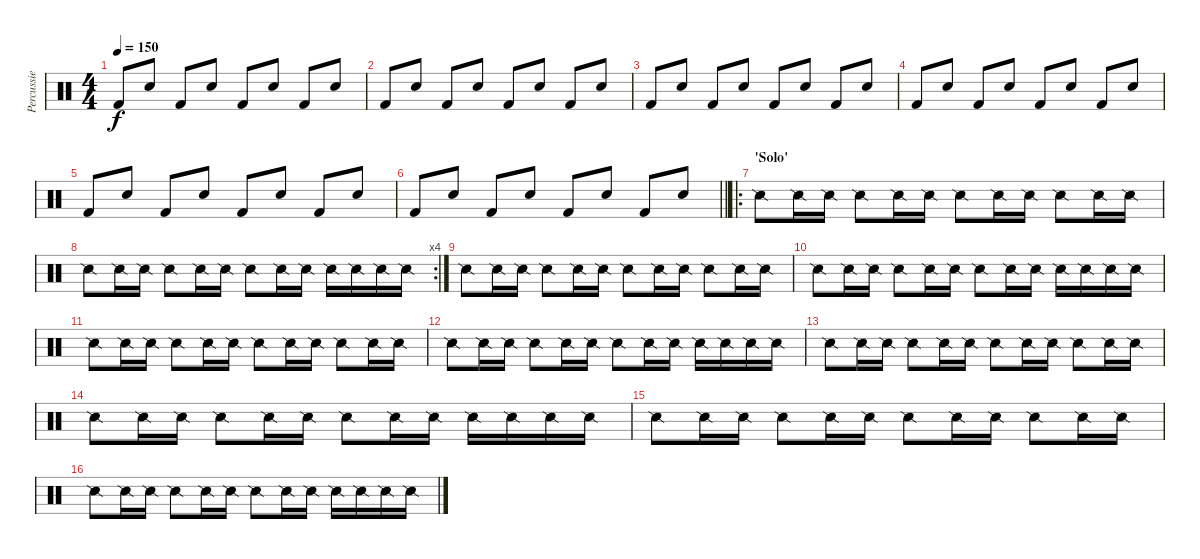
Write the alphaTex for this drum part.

\track ("Percussie" "Percussie") {instrument percussion}
\staff {score}
\articulation defaults
\ts (4 4)
\tempo 150
\clef neutral
\ks c "Kick (hit) 2".8{dy f} "Snare (hit) 2".8 "Kick (hit) 2".8 "Snare (hit) 2".8 "Kick (hit) 2".8 "Snare (hit) 2".8 "Kick (hit) 2".8 "Snare (hit) 2".8
|
"Kick (hit) 2".8 "Snare (hit) 2".8 "Kick (hit) 2".8 "Snare (hit) 2".8 "Kick (hit) 2".8 "Snare (hit) 2".8 "Kick (hit) 2".8 "Snare (hit) 2".8 |
"Kick (hit) 2".8 "Snare (hit) 2".8 "Kick (hit) 2".8 "Snare (hit) 2".8 "Kick (hit) 2".8 "Snare (hit) 2".8 "Kick (hit) 2".8 "Snare (hit) 2".8 |
"Kick (hit) 2".8 "Snare (hit) 2".8 "Kick (hit) 2".8 "Snare (hit) 2".8 "Kick (hit) 2".8 "Snare (hit) 2".8 "Kick (hit) 2".8 "Snare (hit) 2".8 |
"Kick (hit) 2".8 "Snare (hit) 2".8 "Kick (hit) 2".8 "Snare (hit) 2".8 "Kick (hit) 2".8 "Snare (hit) 2".8 "Kick (hit) 2".8 "Snare (hit) 2".8 |
\barLineRight lightlight "Kick (hit) 2".8 "Snare (hit) 2".8 "Kick (hit) 2".8 "Snare (hit) 2".8 "Kick (hit) 2".8 "Snare (hit) 2".8 "Kick (hit) 2".8 "Snare (hit) 2".8
|
\ro
\section ("" "'Solo'")
"Snare (side stick) 2".8{volume 9} "Snare (side stick) 2".16 "Snare (side stick) 2".16 "Snare (side stick) 2".8 "Snare (side stick) 2".16 "Snare (side stick) 2".16 "Snare (side stick) 2".8 "Snare (side stick) 2".16 "Snare (side stick) 2".16 "Snare (side stick) 2".8 "Snare (side stick) 2".16 "Snare (side stick) 2".16 |
\rc 4 "Snare (side stick) 2".8 "Snare (side stick) 2".16 "Snare (side stick) 2".16 "Snare (side stick) 2".8 "Snare (side stick) 2".16 "Snare (side stick) 2".16 "Snare (side stick) 2".8 "Snare (side stick) 2".16 "Snare (side stick) 2".16 "Snare (side stick) 2".16 "Snare (side stick) 2".16 "Snare (side stick) 2".16 "Snare (side stick) 2".16
|
"Snare (side stick) 2".8{volume 9} "Snare (side stick) 2".16 "Snare (side stick) 2".16 "Snare (side stick) 2".8 "Snare (side stick) 2".16 "Snare (side stick) 2".16 "Snare (side stick) 2".8 "Snare (side stick) 2".16 "Snare (side stick) 2".16 "Snare (side stick) 2".8 "Snare (side stick) 2".16 "Snare (side stick) 2".16 |
"Snare (side stick) 2".8 "Snare (side stick) 2".16 "Snare (side stick) 2".16 "Snare (side stick) 2".8 "Snare (side stick) 2".16 "Snare (side stick) 2".16 "Snare (side stick) 2".8 "Snare (side stick) 2".16 "Snare (side stick) 2".16 "Snare (side stick) 2".16 "Snare (side stick) 2".16 "Snare (side stick) 2".16 "Snare (side stick) 2".16 |
"Snare (side stick) 2".8{volume 9} "Snare (side stick) 2".16 "Snare (side stick) 2".16 "Snare (side stick) 2".8 "Snare (side stick) 2".16 "Snare (side stick) 2".16 "Snare (side stick) 2".8 "Snare (side stick) 2".16 "Snare (side stick) 2".16 "Snare (side stick) 2".8 "Snare (side stick) 2".16 "Snare (side stick) 2".16 |
"Snare (side stick) 2".8 "Snare (side stick) 2".16 "Snare (side stick) 2".16 "Snare (side stick) 2".8 "Snare (side stick) 2".16 "Snare (side stick) 2".16 "Snare (side stick) 2".8 "Snare (side stick) 2".16 "Snare (side stick) 2".16 "Snare (side stick) 2".16 "Snare (side stick) 2".16 "Snare (side stick) 2".16 "Snare (side stick) 2".16 |
"Snare (side stick) 2".8{volume 9} "Snare (side stick) 2".16 "Snare (side stick) 2".16 "Snare (side stick) 2".8 "Snare (side stick) 2".16 "Snare (side stick) 2".16 "Snare (side stick) 2".8 "Snare (side stick) 2".16 "Snare (side stick) 2".16 "Snare (side stick) 2".8 "Snare (side stick) 2".16 "Snare (side stick) 2".16 |
"Snare (side stick) 2".8 "Snare (side stick) 2".16 "Snare (side stick) 2".16 "Snare (side stick) 2".8 "Snare (side stick) 2".16 "Snare (side stick) 2".16 "Snare (side stick) 2".8 "Snare (side stick) 2".16 "Snare (side stick) 2".16 "Snare (side stick) 2".16 "Snare (side stick) 2".16 "Snare (side stick) 2".16 "Snare (side stick) 2".16 |
"Snare (side stick) 2".8{volume 9} "Snare (side stick) 2".16 "Snare (side stick) 2".16 "Snare (side stick) 2".8 "Snare (side stick) 2".16 "Snare (side stick) 2".16 "Snare (side stick) 2".8 "Snare (side stick) 2".16 "Snare (side stick) 2".16 "Snare (side stick) 2".8 "Snare (side stick) 2".16 "Snare (side stick) 2".16 |
"Snare (side stick) 2".8 "Snare (side stick) 2".16 "Snare (side stick) 2".16 "Snare (side stick) 2".8 "Snare (side stick) 2".16 "Snare (side stick) 2".16 "Snare (side stick) 2".8 "Snare (side stick) 2".16 "Snare (side stick) 2".16 "Snare (side stick) 2".16 "Snare (side stick) 2".16 "Snare (side stick) 2".16 "Snare (side stick) 2".16
